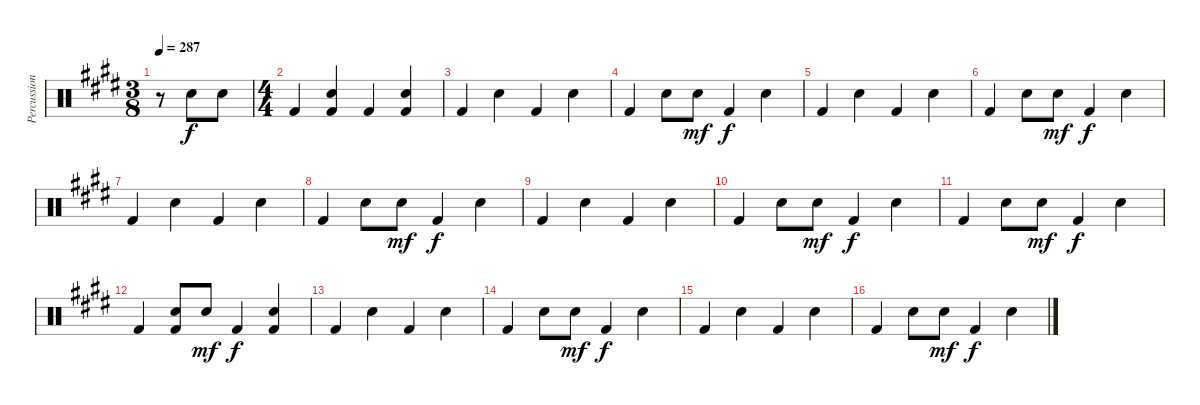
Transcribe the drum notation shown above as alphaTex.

\track ("Percussion" "Percussion") {instrument percussion}
\staff {score}
\articulation defaults
\ts (3 8)
\tempo 287
\clef neutral
\ks c#minor
r.8{dy f} "Electric Snare (hit)".8 "Electric Snare (hit)".8 |
\ts (4 4)
"Kick (hit) 2".4 ("Electric Snare (hit)" "Kick (hit) 2").4 "Kick (hit) 2".4 ("Electric Snare (hit)" "Kick (hit) 2").4 |
"Kick (hit) 2".4 "Electric Snare (hit)".4 "Kick (hit) 2".4 "Electric Snare (hit)".4 |
"Kick (hit) 2".4 "Electric Snare (hit)".8 "Electric Snare (hit)".8{dy mf} "Kick (hit) 2".4{dy f} "Electric Snare (hit)".4 |
"Kick (hit) 2".4 "Electric Snare (hit)".4 "Kick (hit) 2".4 "Electric Snare (hit)".4 |
"Kick (hit) 2".4 "Electric Snare (hit)".8 "Electric Snare (hit)".8{dy mf} "Kick (hit) 2".4{dy f} "Electric Snare (hit)".4 |
"Kick (hit) 2".4 "Electric Snare (hit)".4 "Kick (hit) 2".4 "Electric Snare (hit)".4 |
"Kick (hit) 2".4 "Electric Snare (hit)".8 "Electric Snare (hit)".8{dy mf} "Kick (hit) 2".4{dy f} "Electric Snare (hit)".4 |
"Kick (hit) 2".4 "Electric Snare (hit)".4 "Kick (hit) 2".4 "Electric Snare (hit)".4 |
"Kick (hit) 2".4 "Electric Snare (hit)".8 "Electric Snare (hit)".8{dy mf} "Kick (hit) 2".4{dy f} "Electric Snare (hit)".4 |
"Kick (hit) 2".4 "Electric Snare (hit)".8 "Electric Snare (hit)".8{dy mf} "Kick (hit) 2".4{dy f} "Electric Snare (hit)".4 |
"Kick (hit) 2".4 ("Electric Snare (hit)" "Kick (hit) 2").8 "Electric Snare (hit)".8{dy mf} "Kick (hit) 2".4{dy f} ("Electric Snare (hit)" "Kick (hit) 2").4 |
"Kick (hit) 2".4 "Electric Snare (hit)".4 "Kick (hit) 2".4 "Electric Snare (hit)".4 |
"Kick (hit) 2".4 "Electric Snare (hit)".8 "Electric Snare (hit)".8{dy mf} "Kick (hit) 2".4{dy f} "Electric Snare (hit)".4 |
"Kick (hit) 2".4 "Electric Snare (hit)".4 "Kick (hit) 2".4 "Electric Snare (hit)".4 |
"Kick (hit) 2".4 "Electric Snare (hit)".8 "Electric Snare (hit)".8{dy mf} "Kick (hit) 2".4{dy f} "Electric Snare (hit)".4
